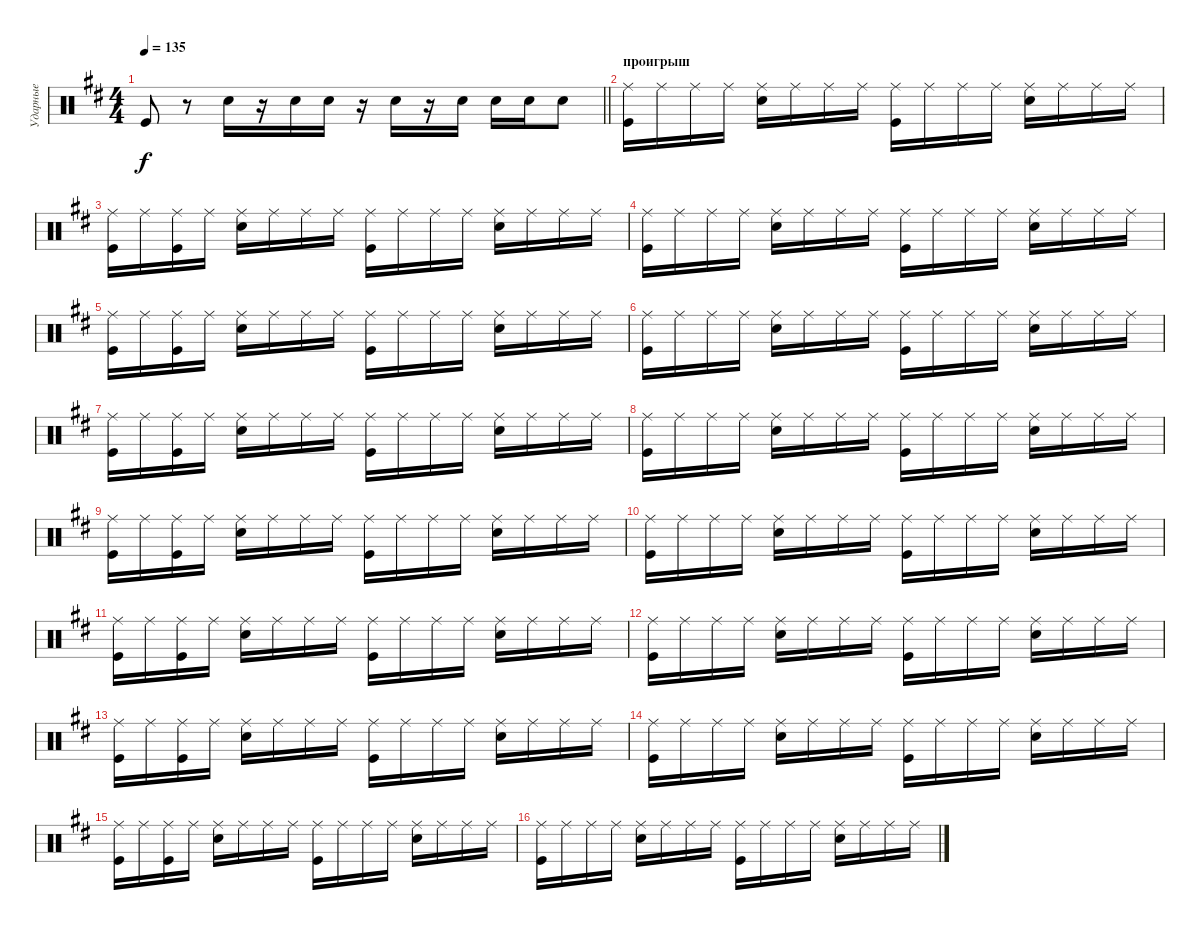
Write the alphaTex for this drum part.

\track ("Ударные" "Ударные") {solo instrument percussion}
\staff {score}
\articulation defaults
\ts (4 4)
\tempo 135
\clef neutral
\barLineRight lightlight
\ks bminor "Kick (hit)".8{dy f}
r.8 "Snare (hit) 2".16 r.16 "Snare (hit) 2".16 "Snare (hit) 2".16 r.16 "Snare (hit) 2".16 r.16 "Snare (hit) 2".16 "Snare (hit) 2".16 "Snare (hit) 2".16 "Snare (hit) 2".8 |
\section ("" "проигрыш")
("Kick (hit)" "Ride (middle)").16 "Ride (middle)".16 "Ride (middle)".16 "Ride (middle)".16 ("Ride (middle)" "Snare (hit) 2").16 "Ride (middle)".16 "Ride (middle)".16 "Ride (middle)".16 ("Kick (hit)" "Ride (middle)").16 "Ride (middle)".16 "Ride (middle)".16 "Ride (middle)".16 ("Ride (middle)" "Snare (hit) 2").16 "Ride (middle)".16 "Ride (middle)".16 "Ride (middle)".16 |
("Kick (hit)" "Ride (middle)").16 "Ride (middle)".16 ("Kick (hit)" "Ride (middle)").16 "Ride (middle)".16 ("Ride (middle)" "Snare (hit) 2").16 "Ride (middle)".16 "Ride (middle)".16 "Ride (middle)".16 ("Kick (hit)" "Ride (middle)").16 "Ride (middle)".16 "Ride (middle)".16 "Ride (middle)".16 ("Ride (middle)" "Snare (hit) 2").16 "Ride (middle)".16 "Ride (middle)".16 "Ride (middle)".16 |
("Kick (hit)" "Ride (middle)").16 "Ride (middle)".16 "Ride (middle)".16 "Ride (middle)".16 ("Ride (middle)" "Snare (hit) 2").16 "Ride (middle)".16 "Ride (middle)".16 "Ride (middle)".16 ("Kick (hit)" "Ride (middle)").16 "Ride (middle)".16 "Ride (middle)".16 "Ride (middle)".16 ("Ride (middle)" "Snare (hit) 2").16 "Ride (middle)".16 "Ride (middle)".16 "Ride (middle)".16 |
("Kick (hit)" "Ride (middle)").16 "Ride (middle)".16 ("Kick (hit)" "Ride (middle)").16 "Ride (middle)".16 ("Ride (middle)" "Snare (hit) 2").16 "Ride (middle)".16 "Ride (middle)".16 "Ride (middle)".16 ("Kick (hit)" "Ride (middle)").16 "Ride (middle)".16 "Ride (middle)".16 "Ride (middle)".16 ("Ride (middle)" "Snare (hit) 2").16 "Ride (middle)".16 "Ride (middle)".16 "Ride (middle)".16 |
("Kick (hit)" "Ride (middle)").16 "Ride (middle)".16 "Ride (middle)".16 "Ride (middle)".16 ("Ride (middle)" "Snare (hit) 2").16 "Ride (middle)".16 "Ride (middle)".16 "Ride (middle)".16 ("Kick (hit)" "Ride (middle)").16 "Ride (middle)".16 "Ride (middle)".16 "Ride (middle)".16 ("Ride (middle)" "Snare (hit) 2").16 "Ride (middle)".16 "Ride (middle)".16 "Ride (middle)".16 |
("Kick (hit)" "Ride (middle)").16 "Ride (middle)".16 ("Kick (hit)" "Ride (middle)").16 "Ride (middle)".16 ("Ride (middle)" "Snare (hit) 2").16 "Ride (middle)".16 "Ride (middle)".16 "Ride (middle)".16 ("Kick (hit)" "Ride (middle)").16 "Ride (middle)".16 "Ride (middle)".16 "Ride (middle)".16 ("Ride (middle)" "Snare (hit) 2").16 "Ride (middle)".16 "Ride (middle)".16 "Ride (middle)".16 |
("Kick (hit)" "Ride (middle)").16 "Ride (middle)".16 "Ride (middle)".16 "Ride (middle)".16 ("Ride (middle)" "Snare (hit) 2").16 "Ride (middle)".16 "Ride (middle)".16 "Ride (middle)".16 ("Kick (hit)" "Ride (middle)").16 "Ride (middle)".16 "Ride (middle)".16 "Ride (middle)".16 ("Ride (middle)" "Snare (hit) 2").16 "Ride (middle)".16 "Ride (middle)".16 "Ride (middle)".16 |
("Kick (hit)" "Ride (middle)").16 "Ride (middle)".16 ("Kick (hit)" "Ride (middle)").16 "Ride (middle)".16 ("Ride (middle)" "Snare (hit) 2").16 "Ride (middle)".16 "Ride (middle)".16 "Ride (middle)".16 ("Kick (hit)" "Ride (middle)").16 "Ride (middle)".16 "Ride (middle)".16 "Ride (middle)".16 ("Ride (middle)" "Snare (hit) 2").16 "Ride (middle)".16 "Ride (middle)".16 "Ride (middle)".16 |
("Kick (hit)" "Ride (middle)").16 "Ride (middle)".16 "Ride (middle)".16 "Ride (middle)".16 ("Ride (middle)" "Snare (hit) 2").16 "Ride (middle)".16 "Ride (middle)".16 "Ride (middle)".16 ("Kick (hit)" "Ride (middle)").16 "Ride (middle)".16 "Ride (middle)".16 "Ride (middle)".16 ("Ride (middle)" "Snare (hit) 2").16 "Ride (middle)".16 "Ride (middle)".16 "Ride (middle)".16 |
("Kick (hit)" "Ride (middle)").16 "Ride (middle)".16 ("Kick (hit)" "Ride (middle)").16 "Ride (middle)".16 ("Ride (middle)" "Snare (hit) 2").16 "Ride (middle)".16 "Ride (middle)".16 "Ride (middle)".16 ("Kick (hit)" "Ride (middle)").16 "Ride (middle)".16 "Ride (middle)".16 "Ride (middle)".16 ("Ride (middle)" "Snare (hit) 2").16 "Ride (middle)".16 "Ride (middle)".16 "Ride (middle)".16 |
("Kick (hit)" "Ride (middle)").16 "Ride (middle)".16 "Ride (middle)".16 "Ride (middle)".16 ("Ride (middle)" "Snare (hit) 2").16 "Ride (middle)".16 "Ride (middle)".16 "Ride (middle)".16 ("Kick (hit)" "Ride (middle)").16 "Ride (middle)".16 "Ride (middle)".16 "Ride (middle)".16 ("Ride (middle)" "Snare (hit) 2").16 "Ride (middle)".16 "Ride (middle)".16 "Ride (middle)".16 |
("Kick (hit)" "Ride (middle)").16 "Ride (middle)".16 ("Kick (hit)" "Ride (middle)").16 "Ride (middle)".16 ("Ride (middle)" "Snare (hit) 2").16 "Ride (middle)".16 "Ride (middle)".16 "Ride (middle)".16 ("Kick (hit)" "Ride (middle)").16 "Ride (middle)".16 "Ride (middle)".16 "Ride (middle)".16 ("Ride (middle)" "Snare (hit) 2").16 "Ride (middle)".16 "Ride (middle)".16 "Ride (middle)".16 |
("Kick (hit)" "Ride (middle)").16 "Ride (middle)".16 "Ride (middle)".16 "Ride (middle)".16 ("Ride (middle)" "Snare (hit) 2").16 "Ride (middle)".16 "Ride (middle)".16 "Ride (middle)".16 ("Kick (hit)" "Ride (middle)").16 "Ride (middle)".16 "Ride (middle)".16 "Ride (middle)".16 ("Ride (middle)" "Snare (hit) 2").16 "Ride (middle)".16 "Ride (middle)".16 "Ride (middle)".16 |
("Kick (hit)" "Ride (middle)").16 "Ride (middle)".16 ("Kick (hit)" "Ride (middle)").16 "Ride (middle)".16 ("Ride (middle)" "Snare (hit) 2").16 "Ride (middle)".16 "Ride (middle)".16 "Ride (middle)".16 ("Kick (hit)" "Ride (middle)").16 "Ride (middle)".16 "Ride (middle)".16 "Ride (middle)".16 ("Ride (middle)" "Snare (hit) 2").16 "Ride (middle)".16 "Ride (middle)".16 "Ride (middle)".16 |
("Kick (hit)" "Ride (middle)").16 "Ride (middle)".16 "Ride (middle)".16 "Ride (middle)".16 ("Ride (middle)" "Snare (hit) 2").16 "Ride (middle)".16 "Ride (middle)".16 "Ride (middle)".16 ("Kick (hit)" "Ride (middle)").16 "Ride (middle)".16 "Ride (middle)".16 "Ride (middle)".16 ("Ride (middle)" "Snare (hit) 2").16 "Ride (middle)".16 "Ride (middle)".16 "Ride (middle)".16
